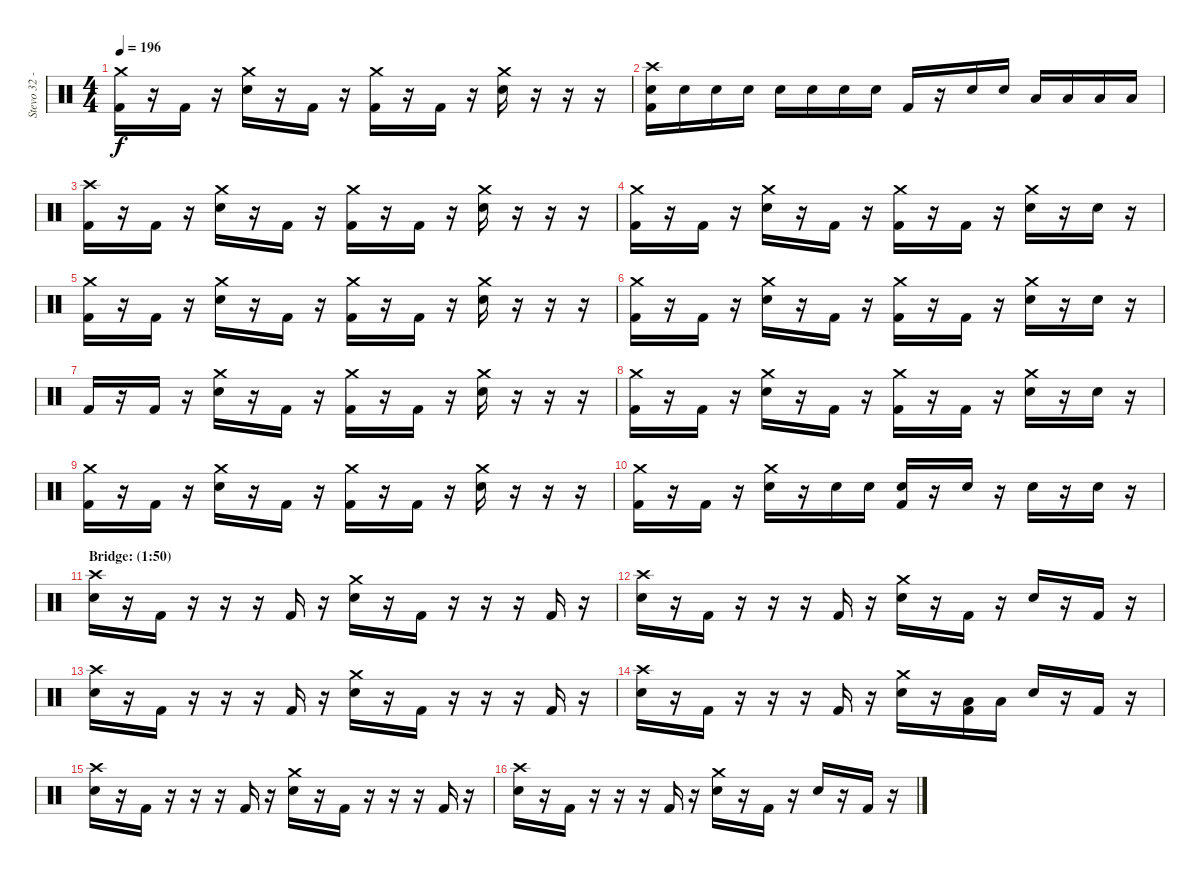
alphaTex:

\track ("Stevo 32 - Drums" "Stevo 32 -") {instrument percussion}
\staff {score}
\articulation defaults
\ts (4 4)
\tempo 196
\clef neutral
\ks c
("Crash medium (hit)" "Kick (hit) 2").16{dy f} r.16 "Kick (hit) 2".16 r.16 ("Crash medium (hit)" "Snare (hit) 2").16 r.16 "Kick (hit) 2".16 r.16 ("Crash medium (hit)" "Kick (hit) 2").16 r.16 "Kick (hit) 2".16 r.16 ("Crash medium (hit)" "Snare (hit) 2").16 r.16 r.16 r.16 |
("Crash high (hit)" "Snare (hit) 2" "Kick (hit) 2").16 "Snare (hit) 2".16 "Snare (hit) 2".16 "Snare (hit) 2".16 "Snare (hit) 2".16 "Snare (hit) 2".16 "Snare (hit) 2".16 "Snare (hit) 2".16 "Kick (hit) 2".16 r.16 "Snare (hit) 2".16 "Snare (hit) 2".16 "Low Floor Tom (hit)".16 "Low Floor Tom (hit)".16 "Low Tom (hit)".16 "Low Tom (hit)".16 |
("Crash high (hit)" "Kick (hit) 2").16 r.16 "Kick (hit) 2".16 r.16 ("Crash medium (hit)" "Snare (hit) 2").16 r.16 "Kick (hit) 2".16 r.16 ("Crash medium (hit)" "Kick (hit) 2").16 r.16 "Kick (hit) 2".16 r.16 ("Crash medium (hit)" "Snare (hit) 2").16 r.16 r.16 r.16 |
("Crash medium (hit)" "Kick (hit) 2").16 r.16 "Kick (hit) 2".16 r.16 ("Crash medium (hit)" "Snare (hit) 2").16 r.16 "Kick (hit) 2".16 r.16 ("Crash medium (hit)" "Kick (hit) 2").16 r.16 "Kick (hit) 2".16 r.16 ("Crash medium (hit)" "Snare (hit) 2").16 r.16 "Snare (hit) 2".16 r.16 |
("Crash medium (hit)" "Kick (hit) 2").16 r.16 "Kick (hit) 2".16 r.16 ("Crash medium (hit)" "Snare (hit) 2").16 r.16 "Kick (hit) 2".16 r.16 ("Crash medium (hit)" "Kick (hit) 2").16 r.16 "Kick (hit) 2".16 r.16 ("Crash medium (hit)" "Snare (hit) 2").16 r.16 r.16 r.16 |
("Crash medium (hit)" "Kick (hit) 2").16 r.16 "Kick (hit) 2".16 r.16 ("Crash medium (hit)" "Snare (hit) 2").16 r.16 "Kick (hit) 2".16 r.16 ("Crash medium (hit)" "Kick (hit) 2").16 r.16 "Kick (hit) 2".16 r.16 ("Crash medium (hit)" "Snare (hit) 2").16 r.16 "Snare (hit) 2".16 r.16 |
"Kick (hit) 2".16 r.16 "Kick (hit) 2".16 r.16 ("Crash medium (hit)" "Snare (hit) 2").16 r.16 "Kick (hit) 2".16 r.16 ("Crash medium (hit)" "Kick (hit) 2").16 r.16 "Kick (hit) 2".16 r.16 ("Crash medium (hit)" "Snare (hit) 2").16 r.16 r.16 r.16 |
("Crash medium (hit)" "Kick (hit) 2").16 r.16 "Kick (hit) 2".16 r.16 ("Crash medium (hit)" "Snare (hit) 2").16 r.16 "Kick (hit) 2".16 r.16 ("Crash medium (hit)" "Kick (hit) 2").16 r.16 "Kick (hit) 2".16 r.16 ("Crash medium (hit)" "Snare (hit) 2").16 r.16 "Snare (hit) 2".16 r.16 |
("Crash medium (hit)" "Kick (hit) 2").16 r.16 "Kick (hit) 2".16 r.16 ("Crash medium (hit)" "Snare (hit) 2").16 r.16 "Kick (hit) 2".16 r.16 ("Crash medium (hit)" "Kick (hit) 2").16 r.16 "Kick (hit) 2".16 r.16 ("Crash medium (hit)" "Snare (hit) 2").16 r.16 r.16 r.16 |
("Crash medium (hit)" "Kick (hit) 2").16 r.16 "Kick (hit) 2".16 r.16 ("Crash medium (hit)" "Snare (hit) 2").16 r.16 "Snare (hit) 2".16 "Snare (hit) 2".16 ("Snare (hit) 2" "Kick (hit) 2").16 r.16 "Snare (hit) 2".16 r.16 "Snare (hit) 2".16 r.16 "Snare (hit) 2".16 r.16 |
\section ("" "Bridge: (1:50)")
("Crash high (hit)" "Snare (hit) 2").16 r.16 "Kick (hit) 2".16 r.16 r.16 r.16 "Kick (hit) 2".16 r.16 ("Crash medium (hit)" "Snare (hit) 2").16 r.16 "Kick (hit) 2".16 r.16 r.16 r.16 "Kick (hit) 2".16 r.16 |
("Crash high (hit)" "Snare (hit) 2").16 r.16 "Kick (hit) 2".16 r.16 r.16 r.16 "Kick (hit) 2".16 r.16 ("Crash medium (hit)" "Snare (hit) 2").16 r.16 "Kick (hit) 2".16 r.16 "Snare (hit) 2".16 r.16 "Kick (hit) 2".16 r.16 |
("Crash high (hit)" "Snare (hit) 2").16 r.16 "Kick (hit) 2".16 r.16 r.16 r.16 "Kick (hit) 2".16 r.16 ("Crash medium (hit)" "Snare (hit) 2").16 r.16 "Kick (hit) 2".16 r.16 r.16 r.16 "Kick (hit) 2".16 r.16 |
("Crash high (hit)" "Snare (hit) 2").16 r.16 "Kick (hit) 2".16 r.16 r.16 r.16 "Kick (hit) 2".16 r.16 ("Crash medium (hit)" "Snare (hit) 2").16 r.16 ("Low Tom (hit)" "Kick (hit) 2").16 "Low Tom (hit)".16 "Snare (hit) 2".16 r.16 "Kick (hit) 2".16 r.16 |
("Crash high (hit)" "Snare (hit) 2").16 r.16 "Kick (hit) 2".16 r.16 r.16 r.16 "Kick (hit) 2".16 r.16 ("Crash medium (hit)" "Snare (hit) 2").16 r.16 "Kick (hit) 2".16 r.16 r.16 r.16 "Kick (hit) 2".16 r.16 |
("Crash high (hit)" "Snare (hit) 2").16 r.16 "Kick (hit) 2".16 r.16 r.16 r.16 "Kick (hit) 2".16 r.16 ("Crash medium (hit)" "Snare (hit) 2").16 r.16 "Kick (hit) 2".16 r.16 "Snare (hit) 2".16 r.16 "Kick (hit) 2".16 r.16
